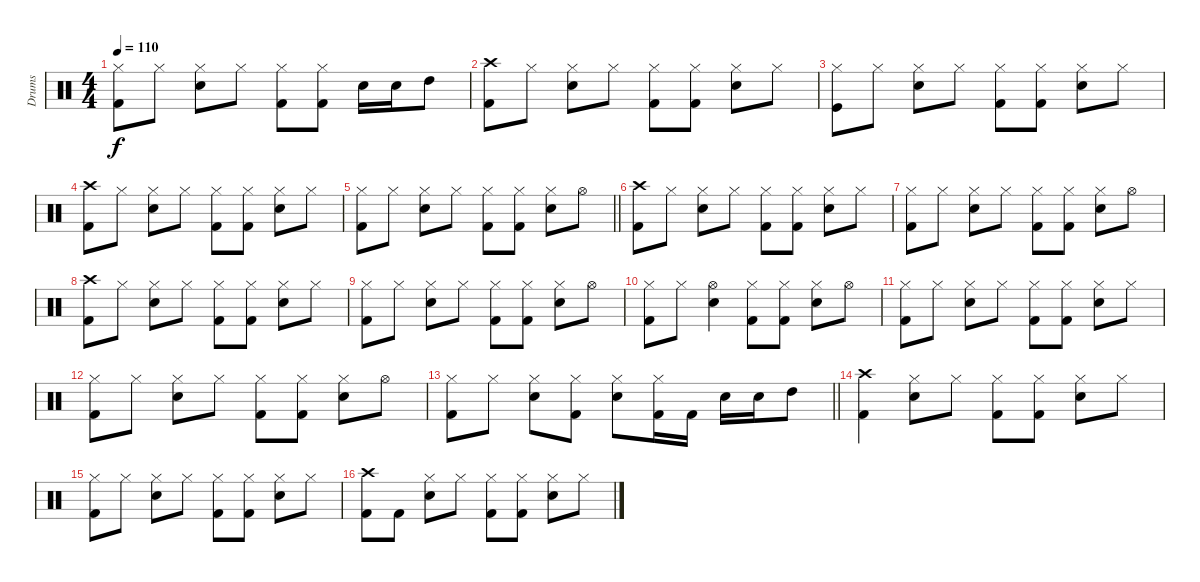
\track ("Drums" "Drums") {instrument percussion}
\staff {score}
\articulation defaults
\ts (4 4)
\tempo 110
\clef neutral
\ks c
("Hi-Hat (closed)" "Kick (hit) 2").8{dy f} "Hi-Hat (closed)".8 ("Hi-Hat (closed)" "Electric Snare (hit)").8 "Hi-Hat (closed)".8 ("Hi-Hat (closed)" "Kick (hit) 2").8 ("Hi-Hat (closed)" "Kick (hit) 2").8 "Electric Snare (hit)".16 "Electric Snare (hit)".16 "High Tom (hit)".8 |
("Crash high (hit)" "Kick (hit) 2").8 "Hi-Hat (closed)".8 ("Hi-Hat (closed)" "Electric Snare (hit)").8 "Hi-Hat (closed)".8 ("Hi-Hat (closed)" "Kick (hit) 2").8 ("Hi-Hat (closed)" "Kick (hit) 2").8 ("Hi-Hat (closed)" "Electric Snare (hit)").8 "Hi-Hat (closed)".8 |
("Hi-Hat (closed)" "Kick (hit)").8 "Hi-Hat (closed)".8 ("Hi-Hat (closed)" "Electric Snare (hit)").8 "Hi-Hat (closed)".8 ("Hi-Hat (closed)" "Kick (hit) 2").8 ("Hi-Hat (closed)" "Kick (hit) 2").8 ("Hi-Hat (closed)" "Electric Snare (hit)").8 "Hi-Hat (closed)".8 |
("Crash high (hit)" "Kick (hit) 2").8 "Hi-Hat (closed)".8 ("Hi-Hat (closed)" "Electric Snare (hit)").8 "Hi-Hat (closed)".8 ("Hi-Hat (closed)" "Kick (hit) 2").8 ("Hi-Hat (closed)" "Kick (hit) 2").8 ("Hi-Hat (closed)" "Electric Snare (hit)").8 "Hi-Hat (closed)".8 |
\barLineRight lightlight
("Hi-Hat (closed)" "Kick (hit) 2").8 "Hi-Hat (closed)".8 ("Hi-Hat (closed)" "Electric Snare (hit)").8 "Hi-Hat (closed)".8 ("Hi-Hat (closed)" "Kick (hit) 2").8 ("Hi-Hat (closed)" "Kick (hit) 2").8 ("Hi-Hat (closed)" "Electric Snare (hit)").8 "Hi-Hat (open)".8 |
("Crash high (hit)" "Kick (hit) 2").8 "Hi-Hat (closed)".8 ("Hi-Hat (closed)" "Electric Snare (hit)").8 "Hi-Hat (closed)".8 ("Hi-Hat (closed)" "Kick (hit) 2").8 ("Hi-Hat (closed)" "Kick (hit) 2").8 ("Hi-Hat (closed)" "Electric Snare (hit)").8 "Hi-Hat (closed)".8 |
("Hi-Hat (closed)" "Kick (hit) 2").8 "Hi-Hat (closed)".8 ("Hi-Hat (closed)" "Electric Snare (hit)").8 "Hi-Hat (closed)".8 ("Hi-Hat (closed)" "Kick (hit) 2").8 ("Hi-Hat (closed)" "Kick (hit) 2").8 ("Hi-Hat (closed)" "Electric Snare (hit)").8 "Hi-Hat (open)".8 |
("Crash high (hit)" "Kick (hit) 2").8 "Hi-Hat (closed)".8 ("Hi-Hat (closed)" "Electric Snare (hit)").8 "Hi-Hat (closed)".8 ("Hi-Hat (closed)" "Kick (hit) 2").8 ("Hi-Hat (closed)" "Kick (hit) 2").8 ("Hi-Hat (closed)" "Electric Snare (hit)").8 "Hi-Hat (closed)".8 |
("Hi-Hat (closed)" "Kick (hit) 2").8 "Hi-Hat (closed)".8 ("Hi-Hat (closed)" "Electric Snare (hit)").8 "Hi-Hat (closed)".8 ("Hi-Hat (closed)" "Kick (hit) 2").8 ("Hi-Hat (closed)" "Kick (hit) 2").8 ("Hi-Hat (closed)" "Electric Snare (hit)").8 "Hi-Hat (open)".8 |
("Hi-Hat (closed)" "Kick (hit) 2").8 "Hi-Hat (closed)".8 ("Hi-Hat (open)" "Electric Snare (hit)").4 ("Hi-Hat (closed)" "Kick (hit) 2").8 ("Hi-Hat (closed)" "Kick (hit) 2").8 ("Hi-Hat (closed)" "Electric Snare (hit)").8 "Hi-Hat (open)".8 |
("Hi-Hat (closed)" "Kick (hit) 2").8 "Hi-Hat (closed)".8 ("Hi-Hat (closed)" "Electric Snare (hit)").8 "Hi-Hat (closed)".8 ("Hi-Hat (closed)" "Kick (hit) 2").8 ("Hi-Hat (closed)" "Kick (hit) 2").8 ("Hi-Hat (closed)" "Electric Snare (hit)").8 "Hi-Hat (closed)".8 |
("Hi-Hat (closed)" "Kick (hit) 2").8 "Hi-Hat (closed)".8 ("Hi-Hat (closed)" "Electric Snare (hit)").8 "Hi-Hat (closed)".8 ("Hi-Hat (closed)" "Kick (hit) 2").8 ("Hi-Hat (closed)" "Kick (hit) 2").8 ("Hi-Hat (closed)" "Electric Snare (hit)").8 "Hi-Hat (open)".8 |
\barLineRight lightlight
("Hi-Hat (closed)" "Kick (hit) 2").8 "Hi-Hat (closed)".8 ("Hi-Hat (closed)" "Electric Snare (hit)").8 ("Hi-Hat (closed)" "Kick (hit) 2").8 ("Hi-Hat (closed)" "Electric Snare (hit)").8 ("Hi-Hat (closed)" "Kick (hit) 2").16 "Kick (hit) 2".16 "Electric Snare (hit)".16 "Electric Snare (hit)".16 "High Tom (hit)".8 |
("Crash high (hit)" "Kick (hit) 2").4 ("Hi-Hat (closed)" "Electric Snare (hit)").8 "Hi-Hat (closed)".8 ("Hi-Hat (closed)" "Kick (hit) 2").8 ("Hi-Hat (closed)" "Kick (hit) 2").8 ("Hi-Hat (closed)" "Electric Snare (hit)").8 "Hi-Hat (closed)".8 |
("Hi-Hat (closed)" "Kick (hit) 2").8 "Hi-Hat (closed)".8 ("Hi-Hat (closed)" "Electric Snare (hit)").8 "Hi-Hat (closed)".8 ("Hi-Hat (closed)" "Kick (hit) 2").8 ("Hi-Hat (closed)" "Kick (hit) 2").8 ("Hi-Hat (closed)" "Electric Snare (hit)").8 "Hi-Hat (closed)".8 |
("Crash high (hit)" "Kick (hit) 2").8 "Kick (hit) 2".8 ("Hi-Hat (closed)" "Electric Snare (hit)").8 "Hi-Hat (closed)".8 ("Hi-Hat (closed)" "Kick (hit) 2").8 ("Hi-Hat (closed)" "Kick (hit) 2").8 ("Hi-Hat (closed)" "Electric Snare (hit)").8 "Hi-Hat (closed)".8
